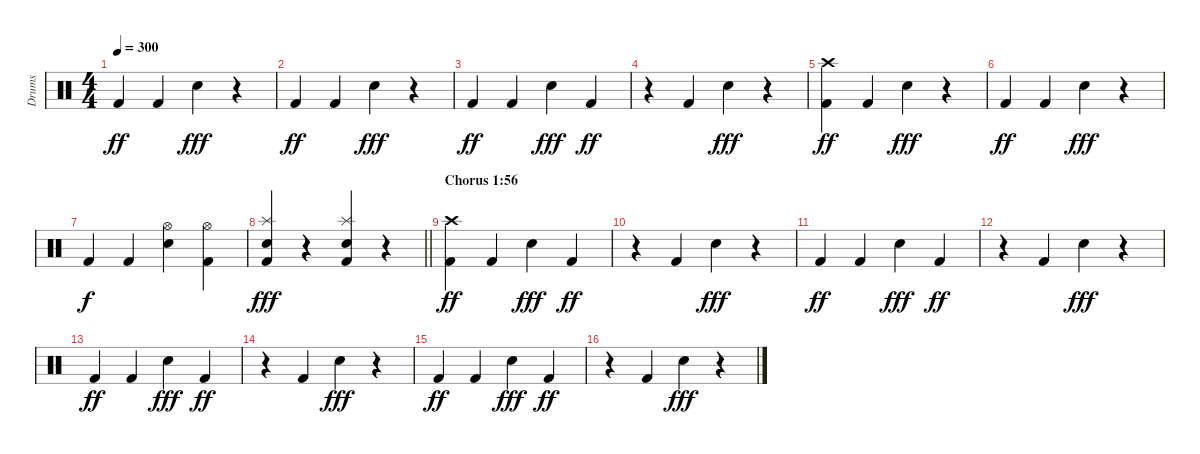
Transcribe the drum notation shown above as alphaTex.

\track ("Drums" "Drums") {instrument percussion}
\staff {score}
\articulation defaults
\ts (4 4)
\tempo 300
\clef neutral
\ks c "Kick (hit) 2".4{dy ff} "Kick (hit) 2".4 "Electric Snare (hit)".4{dy fff}
r.4 |
"Kick (hit) 2".4{dy ff} "Kick (hit) 2".4 "Electric Snare (hit)".4{dy fff} r.4 |
"Kick (hit) 2".4{dy ff} "Kick (hit) 2".4 "Electric Snare (hit)".4{dy fff} "Kick (hit) 2".4{dy ff} |
r.4 "Kick (hit) 2".4 "Electric Snare (hit)".4{dy fff} r.4 |
("Crash high (hit)" "Kick (hit) 2").4{dy ff} "Kick (hit) 2".4 "Electric Snare (hit)".4{dy fff} r.4 |
"Kick (hit) 2".4{dy ff} "Kick (hit) 2".4 "Electric Snare (hit)".4{dy fff} r.4 |
"Kick (hit) 2".4{dy f} "Kick (hit) 2".4 ("Hi-Hat (open)" "Electric Snare (hit)").4 ("Hi-Hat (open)" "Kick (hit) 2").4 |
\barLineRight lightlight
("Splash (hit)" "Snare (hit) 2" "Kick (hit) 2").4{dy fff} r.4 ("Splash (hit)" "Snare (hit) 2" "Kick (hit) 2").4 r.4 |
\section ("" "Chorus 1:56")
("Crash high (hit)" "Kick (hit) 2").4{dy ff} "Kick (hit) 2".4 "Electric Snare (hit)".4{dy fff} "Kick (hit) 2".4{dy ff} |
r.4 "Kick (hit) 2".4 "Electric Snare (hit)".4{dy fff} r.4 |
"Kick (hit) 2".4{dy ff} "Kick (hit) 2".4 "Electric Snare (hit)".4{dy fff} "Kick (hit) 2".4{dy ff} |
r.4 "Kick (hit) 2".4 "Electric Snare (hit)".4{dy fff} r.4 |
"Kick (hit) 2".4{dy ff} "Kick (hit) 2".4 "Electric Snare (hit)".4{dy fff} "Kick (hit) 2".4{dy ff} |
r.4 "Kick (hit) 2".4 "Electric Snare (hit)".4{dy fff} r.4 |
"Kick (hit) 2".4{dy ff} "Kick (hit) 2".4 "Electric Snare (hit)".4{dy fff} "Kick (hit) 2".4{dy ff} |
r.4 "Kick (hit) 2".4 "Electric Snare (hit)".4{dy fff} r.4
